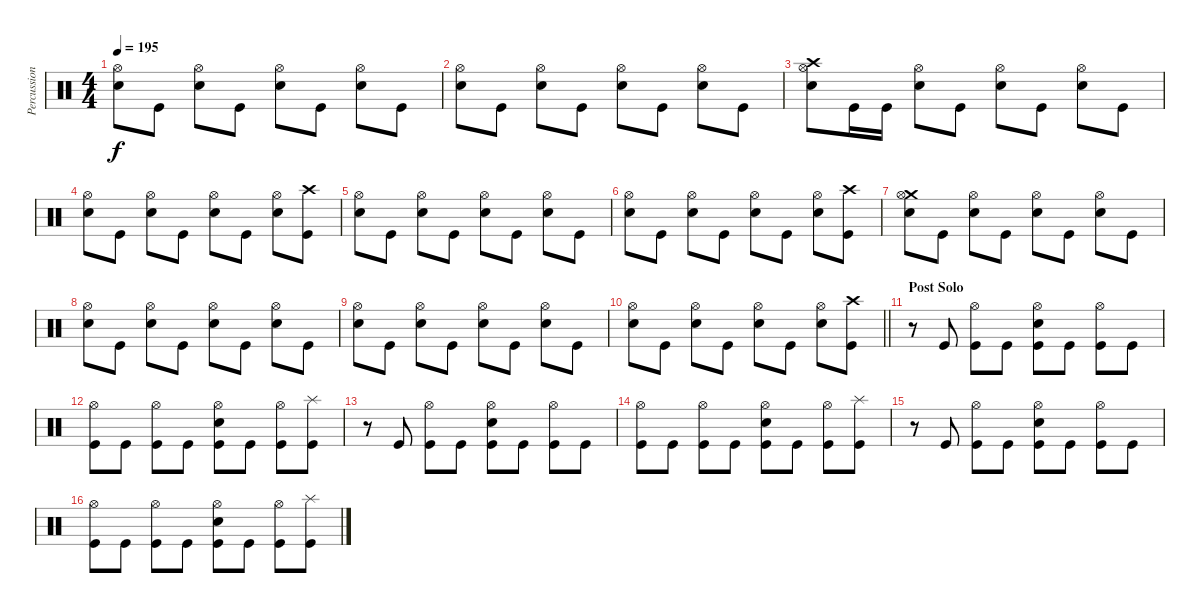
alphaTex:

\track ("Percussion" "Percussion") {instrument percussion}
\staff {score}
\articulation defaults
\ts (4 4)
\tempo 195
\clef neutral
\ks c
("Hi-Hat (open)" "Electric Snare (hit)").8{dy f} "Kick (hit)".8 ("Hi-Hat (open)" "Electric Snare (hit)").8 "Kick (hit)".8 ("Hi-Hat (open)" "Electric Snare (hit)").8 "Kick (hit)".8 ("Hi-Hat (open)" "Electric Snare (hit)").8 "Kick (hit)".8 |
("Hi-Hat (open)" "Electric Snare (hit)").8 "Kick (hit)".8 ("Hi-Hat (open)" "Electric Snare (hit)").8 "Kick (hit)".8 ("Hi-Hat (open)" "Electric Snare (hit)").8 "Kick (hit)".8 ("Hi-Hat (open)" "Electric Snare (hit)").8 "Kick (hit)".8 |
("Crash high (hit)" "Hi-Hat (open)" "Electric Snare (hit)").8 "Kick (hit)".16 "Kick (hit)".16 ("Hi-Hat (open)" "Electric Snare (hit)").8 "Kick (hit)".8 ("Hi-Hat (open)" "Electric Snare (hit)").8 "Kick (hit)".8 ("Hi-Hat (open)" "Electric Snare (hit)").8 "Kick (hit)".8 |
("Hi-Hat (open)" "Electric Snare (hit)").8 "Kick (hit)".8 ("Hi-Hat (open)" "Electric Snare (hit)").8 "Kick (hit)".8 ("Hi-Hat (open)" "Electric Snare (hit)").8 "Kick (hit)".8 ("Hi-Hat (open)" "Electric Snare (hit)").8 ("Crash high (hit)" "Kick (hit)").8 |
("Hi-Hat (open)" "Electric Snare (hit)").8 "Kick (hit)".8 ("Hi-Hat (open)" "Electric Snare (hit)").8 "Kick (hit)".8 ("Hi-Hat (open)" "Electric Snare (hit)").8 "Kick (hit)".8 ("Hi-Hat (open)" "Electric Snare (hit)").8 "Kick (hit)".8 |
("Hi-Hat (open)" "Electric Snare (hit)").8 "Kick (hit)".8 ("Hi-Hat (open)" "Electric Snare (hit)").8 "Kick (hit)".8 ("Hi-Hat (open)" "Electric Snare (hit)").8 "Kick (hit)".8 ("Hi-Hat (open)" "Electric Snare (hit)").8 ("Crash high (hit)" "Kick (hit)").8 |
("Crash medium (hit)" "Hi-Hat (open)" "Electric Snare (hit)").8 "Kick (hit)".8 ("Hi-Hat (open)" "Electric Snare (hit)").8 "Kick (hit)".8 ("Hi-Hat (open)" "Electric Snare (hit)").8 "Kick (hit)".8 ("Hi-Hat (open)" "Electric Snare (hit)").8 "Kick (hit)".8 |
("Hi-Hat (open)" "Electric Snare (hit)").8 "Kick (hit)".8 ("Hi-Hat (open)" "Electric Snare (hit)").8 "Kick (hit)".8 ("Hi-Hat (open)" "Electric Snare (hit)").8 "Kick (hit)".8 ("Hi-Hat (open)" "Electric Snare (hit)").8 "Kick (hit)".8 |
("Hi-Hat (open)" "Electric Snare (hit)").8 "Kick (hit)".8 ("Hi-Hat (open)" "Electric Snare (hit)").8 "Kick (hit)".8 ("Hi-Hat (open)" "Electric Snare (hit)").8 "Kick (hit)".8 ("Hi-Hat (open)" "Electric Snare (hit)").8 "Kick (hit)".8 |
\barLineRight lightlight
("Hi-Hat (open)" "Electric Snare (hit)").8 "Kick (hit)".8 ("Hi-Hat (open)" "Electric Snare (hit)").8 "Kick (hit)".8 ("Hi-Hat (open)" "Electric Snare (hit)").8 "Kick (hit)".8 ("Hi-Hat (open)" "Electric Snare (hit)").8 ("Crash high (hit)" "Kick (hit)").8 |
\section ("" "Post Solo")
r.8 "Kick (hit)".8 ("Hi-Hat (open)" "Kick (hit)").8 "Kick (hit)".8 ("Hi-Hat (open)" "Electric Snare (hit)" "Kick (hit)").8 "Kick (hit)".8 ("Hi-Hat (open)" "Kick (hit)").8 "Kick (hit)".8 |
("Hi-Hat (open)" "Kick (hit)").8 "Kick (hit)".8 ("Hi-Hat (open)" "Kick (hit)").8 "Kick (hit)".8 ("Hi-Hat (open)" "Electric Snare (hit)" "Kick (hit)").8 "Kick (hit)".8 ("Hi-Hat (open)" "Kick (hit)").8 ("Splash (hit)" "Kick (hit)").8 |
r.8 "Kick (hit)".8 ("Hi-Hat (open)" "Kick (hit)").8 "Kick (hit)".8 ("Hi-Hat (open)" "Electric Snare (hit)" "Kick (hit)").8 "Kick (hit)".8 ("Hi-Hat (open)" "Kick (hit)").8 "Kick (hit)".8 |
("Hi-Hat (open)" "Kick (hit)").8 "Kick (hit)".8 ("Hi-Hat (open)" "Kick (hit)").8 "Kick (hit)".8 ("Hi-Hat (open)" "Electric Snare (hit)" "Kick (hit)").8 "Kick (hit)".8 ("Hi-Hat (open)" "Kick (hit)").8 ("Splash (hit)" "Kick (hit)").8 |
r.8 "Kick (hit)".8 ("Hi-Hat (open)" "Kick (hit)").8 "Kick (hit)".8 ("Hi-Hat (open)" "Electric Snare (hit)" "Kick (hit)").8 "Kick (hit)".8 ("Hi-Hat (open)" "Kick (hit)").8 "Kick (hit)".8 |
("Hi-Hat (open)" "Kick (hit)").8 "Kick (hit)".8 ("Hi-Hat (open)" "Kick (hit)").8 "Kick (hit)".8 ("Hi-Hat (open)" "Electric Snare (hit)" "Kick (hit)").8 "Kick (hit)".8 ("Hi-Hat (open)" "Kick (hit)").8 ("Splash (hit)" "Kick (hit)").8
